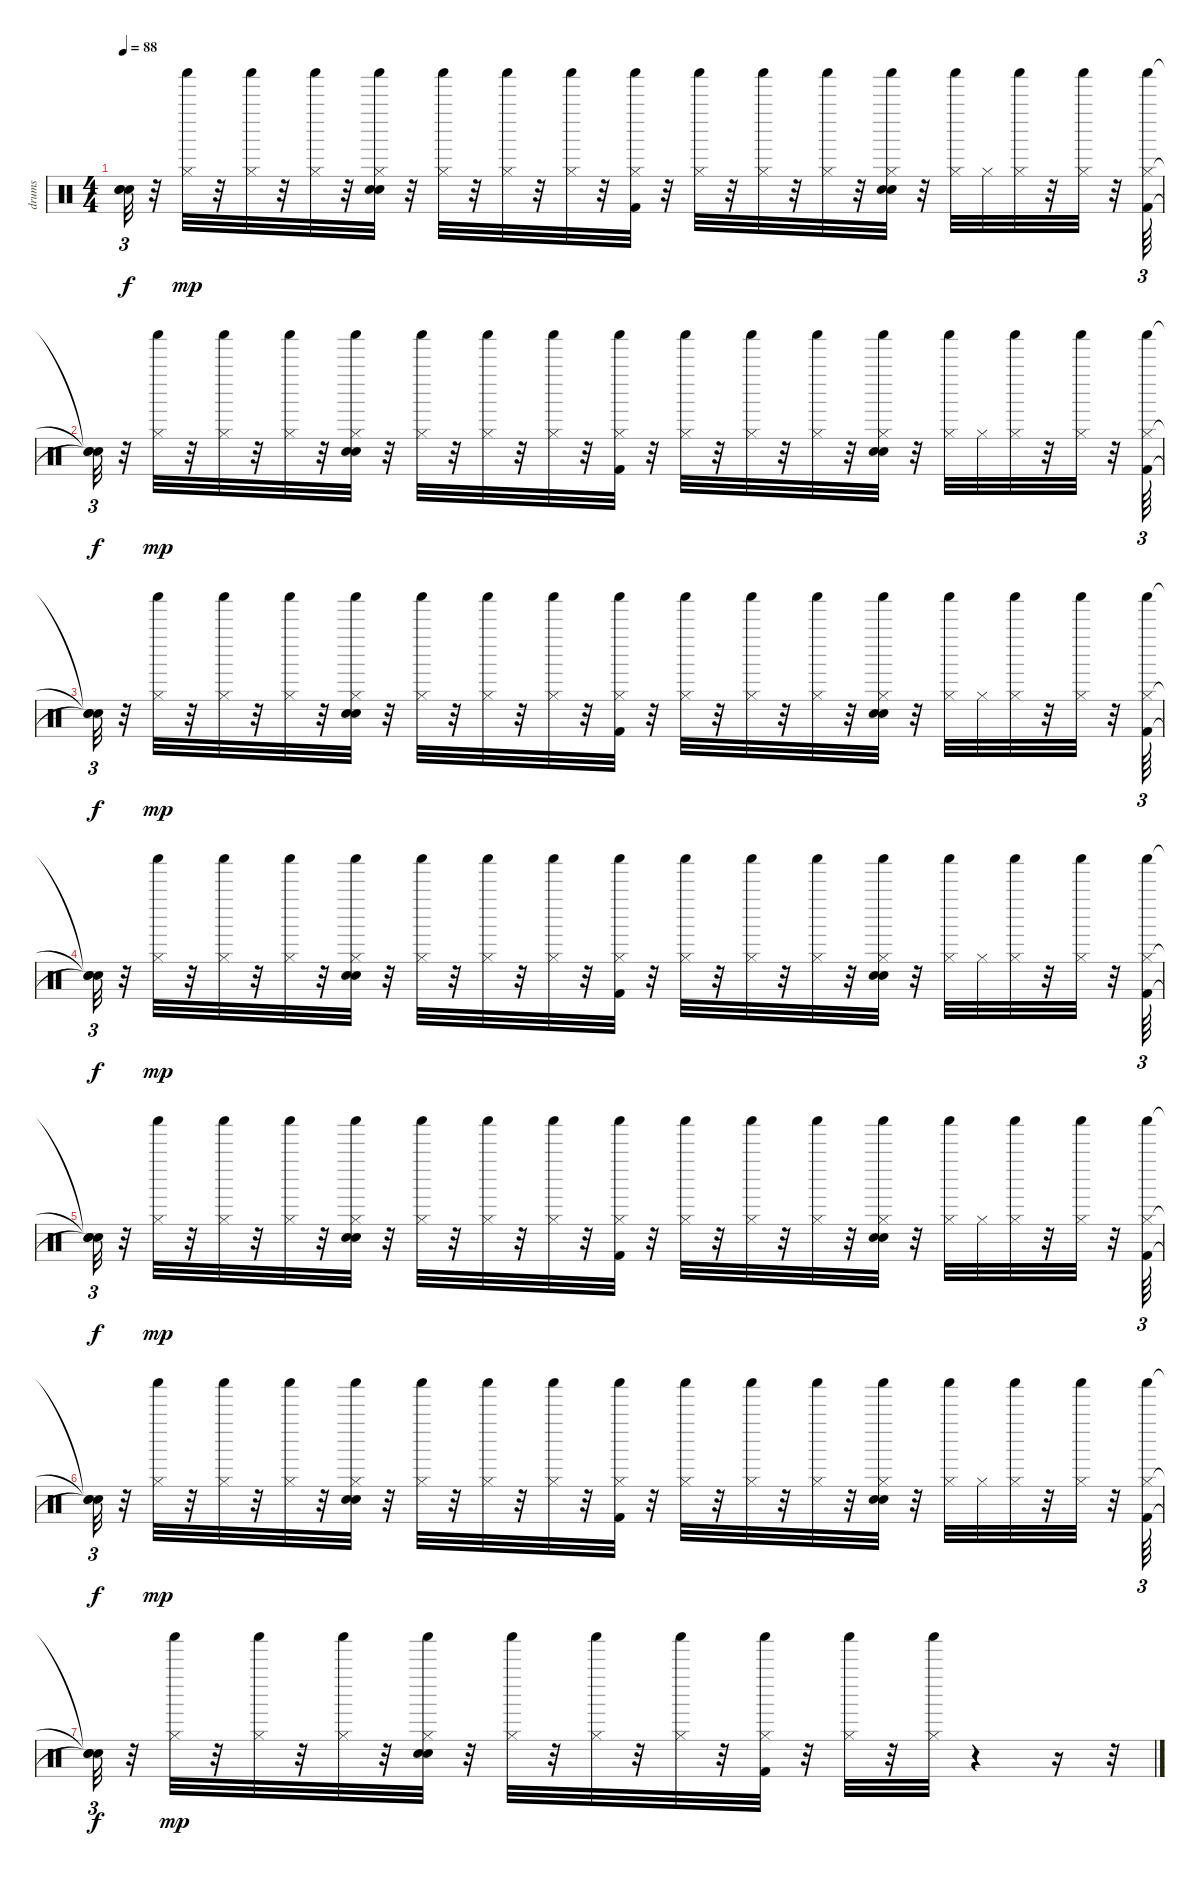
\track ("drums" "drums") {instrument percussion}
\staff {score}
\articulation defaults
\ts (4 4)
\tempo 88
\clef neutral
\ks c
("Snare (hit)"{t} "Snare (hit)"{t} "Snare (hit)"{t}).32{tu (3 2) dy f} r.32 ("Shaker (hit)" "Hi-Hat (closed)").32{dy mp} r.32 ("Shaker (hit)" "Hi-Hat (closed)").32 r.32 ("Shaker (hit)" "Hi-Hat (closed)").32 r.32 ("Shaker (hit)" "Hand Clap (hit)" "Snare (hit) 2" "Hi-Hat (closed)").32 r.32 ("Shaker (hit)" "Hi-Hat (closed)").32 r.32 ("Shaker (hit)" "Hi-Hat (closed)").32 r.32 ("Shaker (hit)" "Hi-Hat (closed)").32 r.32 ("Shaker (hit)" "Kick (hit) 2" "Hi-Hat (closed)").32 r.32 ("Shaker (hit)" "Hi-Hat (closed)").32 r.32 ("Shaker (hit)" "Hi-Hat (closed)").32 r.32 ("Shaker (hit)" "Hi-Hat (closed)").32 r.32 ("Shaker (hit)" "Hand Clap (hit)" "Snare (hit) 2" "Hi-Hat (closed)").32 r.32 ("Shaker (hit)" "Hi-Hat (closed)").32 "Hi-Hat (closed)".32 ("Shaker (hit)" "Hi-Hat (closed)").32 r.32 ("Shaker (hit)" "Hi-Hat (closed)").32 r.32 ("Shaker (hit)" "Kick (hit) 2" "Hi-Hat (closed)").64{tu (3 2)} |
("Snare (hit)"{t} "Snare (hit)"{t} "Snare (hit)"{t}).32{tu (3 2) dy f} r.32 ("Shaker (hit)" "Hi-Hat (closed)").32{dy mp} r.32 ("Shaker (hit)" "Hi-Hat (closed)").32 r.32 ("Shaker (hit)" "Hi-Hat (closed)").32 r.32 ("Shaker (hit)" "Hand Clap (hit)" "Snare (hit) 2" "Hi-Hat (closed)").32 r.32 ("Shaker (hit)" "Hi-Hat (closed)").32 r.32 ("Shaker (hit)" "Hi-Hat (closed)").32 r.32 ("Shaker (hit)" "Hi-Hat (closed)").32 r.32 ("Shaker (hit)" "Kick (hit) 2" "Hi-Hat (closed)").32 r.32 ("Shaker (hit)" "Hi-Hat (closed)").32 r.32 ("Shaker (hit)" "Hi-Hat (closed)").32 r.32 ("Shaker (hit)" "Hi-Hat (closed)").32 r.32 ("Shaker (hit)" "Hand Clap (hit)" "Snare (hit) 2" "Hi-Hat (closed)").32 r.32 ("Shaker (hit)" "Hi-Hat (closed)").32 "Hi-Hat (closed)".32 ("Shaker (hit)" "Hi-Hat (closed)").32 r.32 ("Shaker (hit)" "Hi-Hat (closed)").32 r.32 ("Shaker (hit)" "Kick (hit) 2" "Hi-Hat (closed)").64{tu (3 2)} |
("Snare (hit)"{t} "Snare (hit)"{t} "Snare (hit)"{t}).32{tu (3 2) dy f} r.32 ("Shaker (hit)" "Hi-Hat (closed)").32{dy mp} r.32 ("Shaker (hit)" "Hi-Hat (closed)").32 r.32 ("Shaker (hit)" "Hi-Hat (closed)").32 r.32 ("Shaker (hit)" "Hand Clap (hit)" "Snare (hit) 2" "Hi-Hat (closed)").32 r.32 ("Shaker (hit)" "Hi-Hat (closed)").32 r.32 ("Shaker (hit)" "Hi-Hat (closed)").32 r.32 ("Shaker (hit)" "Hi-Hat (closed)").32 r.32 ("Shaker (hit)" "Kick (hit) 2" "Hi-Hat (closed)").32 r.32 ("Shaker (hit)" "Hi-Hat (closed)").32 r.32 ("Shaker (hit)" "Hi-Hat (closed)").32 r.32 ("Shaker (hit)" "Hi-Hat (closed)").32 r.32 ("Shaker (hit)" "Hand Clap (hit)" "Snare (hit) 2" "Hi-Hat (closed)").32 r.32 ("Shaker (hit)" "Hi-Hat (closed)").32 "Hi-Hat (closed)".32 ("Shaker (hit)" "Hi-Hat (closed)").32 r.32 ("Shaker (hit)" "Hi-Hat (closed)").32 r.32 ("Shaker (hit)" "Kick (hit) 2" "Hi-Hat (closed)").64{tu (3 2)} |
("Snare (hit)"{t} "Snare (hit)"{t} "Snare (hit)"{t}).32{tu (3 2) dy f} r.32 ("Shaker (hit)" "Hi-Hat (closed)").32{dy mp} r.32 ("Shaker (hit)" "Hi-Hat (closed)").32 r.32 ("Shaker (hit)" "Hi-Hat (closed)").32 r.32 ("Shaker (hit)" "Hand Clap (hit)" "Snare (hit) 2" "Hi-Hat (closed)").32 r.32 ("Shaker (hit)" "Hi-Hat (closed)").32 r.32 ("Shaker (hit)" "Hi-Hat (closed)").32 r.32 ("Shaker (hit)" "Hi-Hat (closed)").32 r.32 ("Shaker (hit)" "Kick (hit) 2" "Hi-Hat (closed)").32 r.32 ("Shaker (hit)" "Hi-Hat (closed)").32 r.32 ("Shaker (hit)" "Hi-Hat (closed)").32 r.32 ("Shaker (hit)" "Hi-Hat (closed)").32 r.32 ("Shaker (hit)" "Hand Clap (hit)" "Snare (hit) 2" "Hi-Hat (closed)").32 r.32 ("Shaker (hit)" "Hi-Hat (closed)").32 "Hi-Hat (closed)".32 ("Shaker (hit)" "Hi-Hat (closed)").32 r.32 ("Shaker (hit)" "Hi-Hat (closed)").32 r.32 ("Shaker (hit)" "Kick (hit) 2" "Hi-Hat (closed)").64{tu (3 2)} |
("Snare (hit)"{t} "Snare (hit)"{t} "Snare (hit)"{t}).32{tu (3 2) dy f} r.32 ("Shaker (hit)" "Hi-Hat (closed)").32{dy mp} r.32 ("Shaker (hit)" "Hi-Hat (closed)").32 r.32 ("Shaker (hit)" "Hi-Hat (closed)").32 r.32 ("Shaker (hit)" "Hand Clap (hit)" "Snare (hit) 2" "Hi-Hat (closed)").32 r.32 ("Shaker (hit)" "Hi-Hat (closed)").32 r.32 ("Shaker (hit)" "Hi-Hat (closed)").32 r.32 ("Shaker (hit)" "Hi-Hat (closed)").32 r.32 ("Shaker (hit)" "Kick (hit) 2" "Hi-Hat (closed)").32 r.32 ("Shaker (hit)" "Hi-Hat (closed)").32 r.32 ("Shaker (hit)" "Hi-Hat (closed)").32 r.32 ("Shaker (hit)" "Hi-Hat (closed)").32 r.32 ("Shaker (hit)" "Hand Clap (hit)" "Snare (hit) 2" "Hi-Hat (closed)").32 r.32 ("Shaker (hit)" "Hi-Hat (closed)").32 "Hi-Hat (closed)".32 ("Shaker (hit)" "Hi-Hat (closed)").32 r.32 ("Shaker (hit)" "Hi-Hat (closed)").32 r.32 ("Shaker (hit)" "Kick (hit) 2" "Hi-Hat (closed)").64{tu (3 2)} |
("Snare (hit)"{t} "Snare (hit)"{t} "Snare (hit)"{t}).32{tu (3 2) dy f} r.32 ("Shaker (hit)" "Hi-Hat (closed)").32{dy mp} r.32 ("Shaker (hit)" "Hi-Hat (closed)").32 r.32 ("Shaker (hit)" "Hi-Hat (closed)").32 r.32 ("Shaker (hit)" "Hand Clap (hit)" "Snare (hit) 2" "Hi-Hat (closed)").32 r.32 ("Shaker (hit)" "Hi-Hat (closed)").32 r.32 ("Shaker (hit)" "Hi-Hat (closed)").32 r.32 ("Shaker (hit)" "Hi-Hat (closed)").32 r.32 ("Shaker (hit)" "Kick (hit) 2" "Hi-Hat (closed)").32 r.32 ("Shaker (hit)" "Hi-Hat (closed)").32 r.32 ("Shaker (hit)" "Hi-Hat (closed)").32 r.32 ("Shaker (hit)" "Hi-Hat (closed)").32 r.32 ("Shaker (hit)" "Hand Clap (hit)" "Snare (hit) 2" "Hi-Hat (closed)").32 r.32 ("Shaker (hit)" "Hi-Hat (closed)").32 "Hi-Hat (closed)".32 ("Shaker (hit)" "Hi-Hat (closed)").32 r.32 ("Shaker (hit)" "Hi-Hat (closed)").32 r.32 ("Shaker (hit)" "Kick (hit) 2" "Hi-Hat (closed)").64{tu (3 2)} |
("Snare (hit)"{t} "Snare (hit)"{t} "Snare (hit)"{t}).32{tu (3 2) dy f} r.32 ("Shaker (hit)" "Hi-Hat (closed)").32{dy mp} r.32 ("Shaker (hit)" "Hi-Hat (closed)").32 r.32 ("Shaker (hit)" "Hi-Hat (closed)").32 r.32 ("Shaker (hit)" "Hand Clap (hit)" "Snare (hit) 2" "Hi-Hat (closed)").32 r.32 ("Shaker (hit)" "Hi-Hat (closed)").32 r.32 ("Shaker (hit)" "Hi-Hat (closed)").32 r.32 ("Shaker (hit)" "Hi-Hat (closed)").32 r.32 ("Shaker (hit)" "Kick (hit) 2" "Hi-Hat (closed)").32 r.32 ("Shaker (hit)" "Hi-Hat (closed)").32 r.32 ("Shaker (hit)" "Hi-Hat (closed)").32 r.4 r.16 r.32
